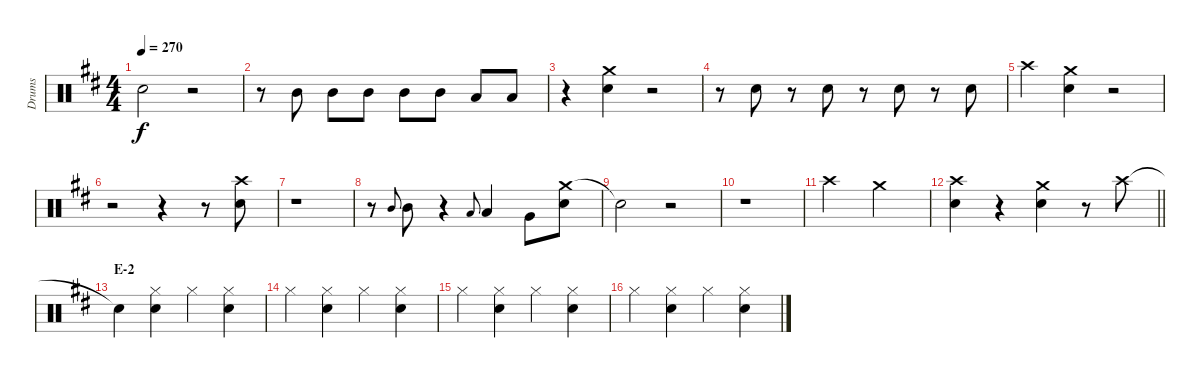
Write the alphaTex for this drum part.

\track ("Drums" "Drums") {instrument percussion}
\staff {score}
\articulation defaults
\ts (4 4)
\tempo 270
\clef neutral
\ks d "Snare (hit)"{t}.2{dy f}
r.2 |
r.8 "Mid Tom (hit)".8 "Mid Tom (hit)".8 "Mid Tom (hit)".8 "Mid Tom (hit)".8 "Mid Tom (hit)".8 "Low Tom (hit)".8 "Low Tom (hit)".8 |
r.4 ("Crash medium (hit)" "Snare (hit) 2").4 r.2 |
r.8 "Snare (hit) 2".8 r.8 "Snare (hit) 2".8 r.8 "Snare (hit) 2".8 r.8 "Snare (hit) 2".8 |
"Crash high (hit)".4 ("Crash medium (hit)" "Snare (hit) 2").4 r.2 |
r.2 r.4 r.8 ("Crash high (hit)" "Snare (hit) 2").8 |
r.1 |
r.8 "Mid Tom (hit)".8{gr onbeat} "Mid Tom (hit)".8 r.4 "Low Tom (hit)".8{gr onbeat} "Low Tom (hit)".4 "Very Low Tom (hit)".8 ("Crash medium (hit)" "Snare (hit) 2").8 |
"Snare (hit)"{t}.2 r.2 |
r.1 |
"Crash high (hit)".2 "Crash medium (hit)".2 |
\barLineRight lightlight
("Crash high (hit)" "Snare (hit) 2").4 r.4 ("Crash medium (hit)" "Snare (hit) 2").4 r.8 "Crash high (hit)".8 |
\section ("" "E-2")
"Snare (hit)"{t}.4 ("Hi-Hat (closed)" "Snare (hit) 2").4 "Hi-Hat (closed)".4 ("Hi-Hat (closed)" "Snare (hit) 2").4 |
"Hi-Hat (closed)".4 ("Hi-Hat (closed)" "Snare (hit) 2").4 "Hi-Hat (closed)".4 ("Hi-Hat (closed)" "Snare (hit) 2").4 |
"Hi-Hat (closed)".4 ("Hi-Hat (closed)" "Snare (hit) 2").4 "Hi-Hat (closed)".4 ("Hi-Hat (closed)" "Snare (hit) 2").4 |
"Hi-Hat (closed)".4 ("Hi-Hat (closed)" "Snare (hit) 2").4 "Hi-Hat (closed)".4 ("Hi-Hat (closed)" "Snare (hit) 2").4
